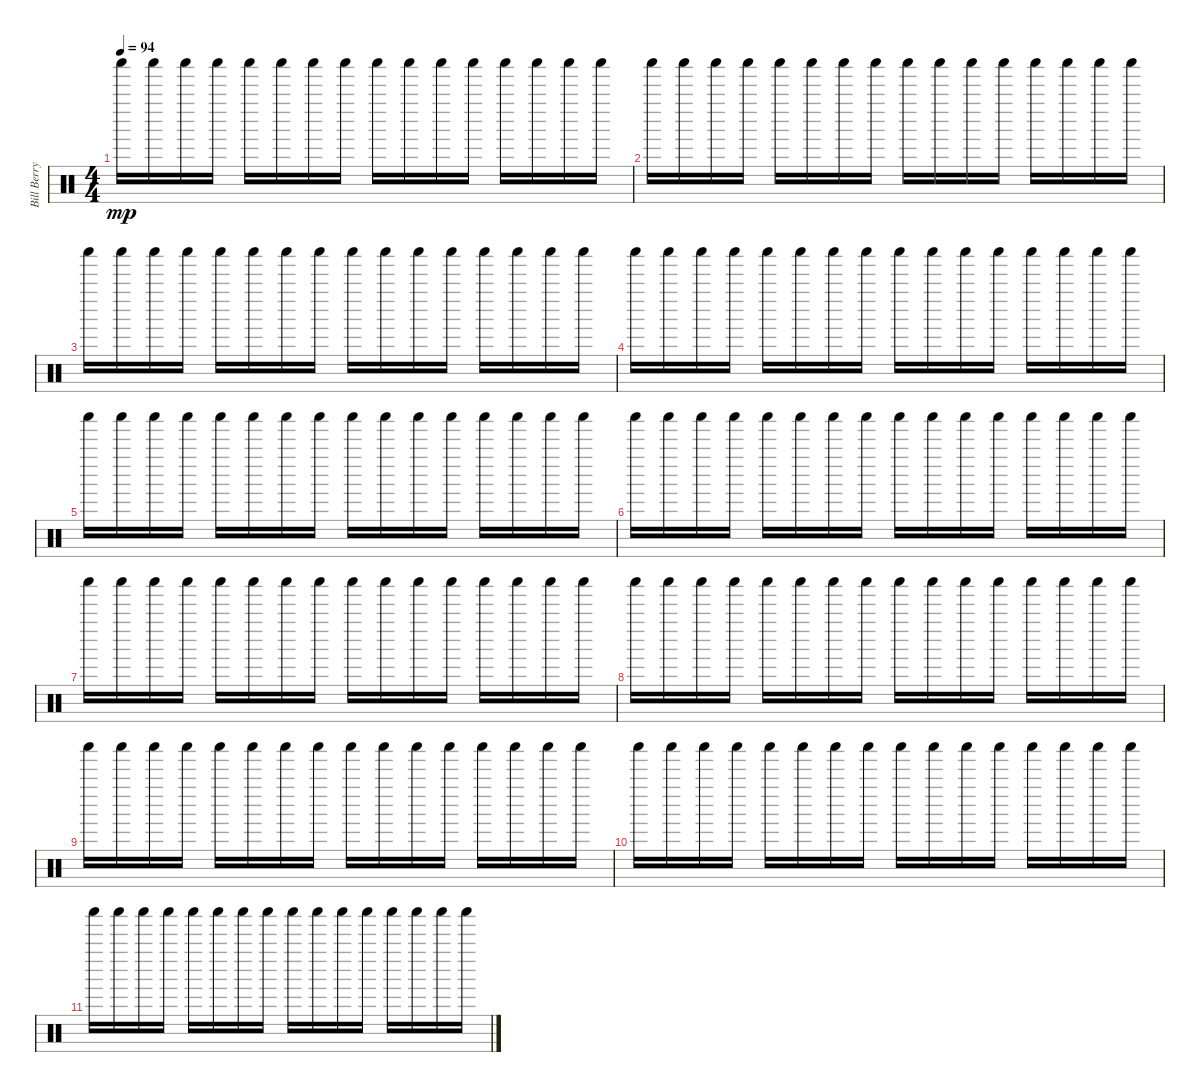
\track ("Bill Berry (Percussion)" "Bill Berry") {instrument percussion}
\staff {score}
\articulation defaults
\ts (4 4)
\tempo 94
\clef neutral
\ks c "Shaker (hit)".16{dy mp} "Shaker (hit)".16 "Shaker (hit)".16 "Shaker (hit)".16 "Shaker (hit)".16 "Shaker (hit)".16 "Shaker (hit)".16 "Shaker (hit)".16 "Shaker (hit)".16 "Shaker (hit)".16 "Shaker (hit)".16 "Shaker (hit)".16 "Shaker (hit)".16 "Shaker (hit)".16 "Shaker (hit)".16 "Shaker (hit)".16
|
"Shaker (hit)".16 "Shaker (hit)".16 "Shaker (hit)".16 "Shaker (hit)".16 "Shaker (hit)".16 "Shaker (hit)".16 "Shaker (hit)".16 "Shaker (hit)".16 "Shaker (hit)".16 "Shaker (hit)".16 "Shaker (hit)".16 "Shaker (hit)".16 "Shaker (hit)".16 "Shaker (hit)".16 "Shaker (hit)".16 "Shaker (hit)".16 |
"Shaker (hit)".16 "Shaker (hit)".16 "Shaker (hit)".16 "Shaker (hit)".16 "Shaker (hit)".16 "Shaker (hit)".16 "Shaker (hit)".16 "Shaker (hit)".16 "Shaker (hit)".16 "Shaker (hit)".16 "Shaker (hit)".16 "Shaker (hit)".16 "Shaker (hit)".16 "Shaker (hit)".16 "Shaker (hit)".16 "Shaker (hit)".16 |
"Shaker (hit)".16 "Shaker (hit)".16 "Shaker (hit)".16 "Shaker (hit)".16 "Shaker (hit)".16 "Shaker (hit)".16 "Shaker (hit)".16 "Shaker (hit)".16 "Shaker (hit)".16 "Shaker (hit)".16 "Shaker (hit)".16 "Shaker (hit)".16 "Shaker (hit)".16 "Shaker (hit)".16 "Shaker (hit)".16 "Shaker (hit)".16 |
"Shaker (hit)".16 "Shaker (hit)".16 "Shaker (hit)".16 "Shaker (hit)".16 "Shaker (hit)".16 "Shaker (hit)".16 "Shaker (hit)".16 "Shaker (hit)".16 "Shaker (hit)".16 "Shaker (hit)".16 "Shaker (hit)".16 "Shaker (hit)".16 "Shaker (hit)".16 "Shaker (hit)".16 "Shaker (hit)".16 "Shaker (hit)".16 |
"Shaker (hit)".16 "Shaker (hit)".16 "Shaker (hit)".16 "Shaker (hit)".16 "Shaker (hit)".16 "Shaker (hit)".16 "Shaker (hit)".16 "Shaker (hit)".16 "Shaker (hit)".16 "Shaker (hit)".16 "Shaker (hit)".16 "Shaker (hit)".16 "Shaker (hit)".16 "Shaker (hit)".16 "Shaker (hit)".16 "Shaker (hit)".16 |
"Shaker (hit)".16 "Shaker (hit)".16 "Shaker (hit)".16 "Shaker (hit)".16 "Shaker (hit)".16 "Shaker (hit)".16 "Shaker (hit)".16 "Shaker (hit)".16 "Shaker (hit)".16 "Shaker (hit)".16 "Shaker (hit)".16 "Shaker (hit)".16 "Shaker (hit)".16 "Shaker (hit)".16 "Shaker (hit)".16 "Shaker (hit)".16 |
"Shaker (hit)".16 "Shaker (hit)".16 "Shaker (hit)".16 "Shaker (hit)".16 "Shaker (hit)".16 "Shaker (hit)".16 "Shaker (hit)".16 "Shaker (hit)".16 "Shaker (hit)".16 "Shaker (hit)".16 "Shaker (hit)".16 "Shaker (hit)".16 "Shaker (hit)".16 "Shaker (hit)".16 "Shaker (hit)".16 "Shaker (hit)".16 |
"Shaker (hit)".16 "Shaker (hit)".16 "Shaker (hit)".16 "Shaker (hit)".16 "Shaker (hit)".16 "Shaker (hit)".16 "Shaker (hit)".16 "Shaker (hit)".16 "Shaker (hit)".16 "Shaker (hit)".16 "Shaker (hit)".16 "Shaker (hit)".16 "Shaker (hit)".16 "Shaker (hit)".16 "Shaker (hit)".16 "Shaker (hit)".16 |
"Shaker (hit)".16 "Shaker (hit)".16 "Shaker (hit)".16 "Shaker (hit)".16 "Shaker (hit)".16 "Shaker (hit)".16 "Shaker (hit)".16 "Shaker (hit)".16 "Shaker (hit)".16 "Shaker (hit)".16 "Shaker (hit)".16 "Shaker (hit)".16 "Shaker (hit)".16 "Shaker (hit)".16 "Shaker (hit)".16 "Shaker (hit)".16 |
"Shaker (hit)".16 "Shaker (hit)".16 "Shaker (hit)".16 "Shaker (hit)".16 "Shaker (hit)".16 "Shaker (hit)".16 "Shaker (hit)".16 "Shaker (hit)".16 "Shaker (hit)".16 "Shaker (hit)".16 "Shaker (hit)".16 "Shaker (hit)".16 "Shaker (hit)".16 "Shaker (hit)".16 "Shaker (hit)".16 "Shaker (hit)".16
